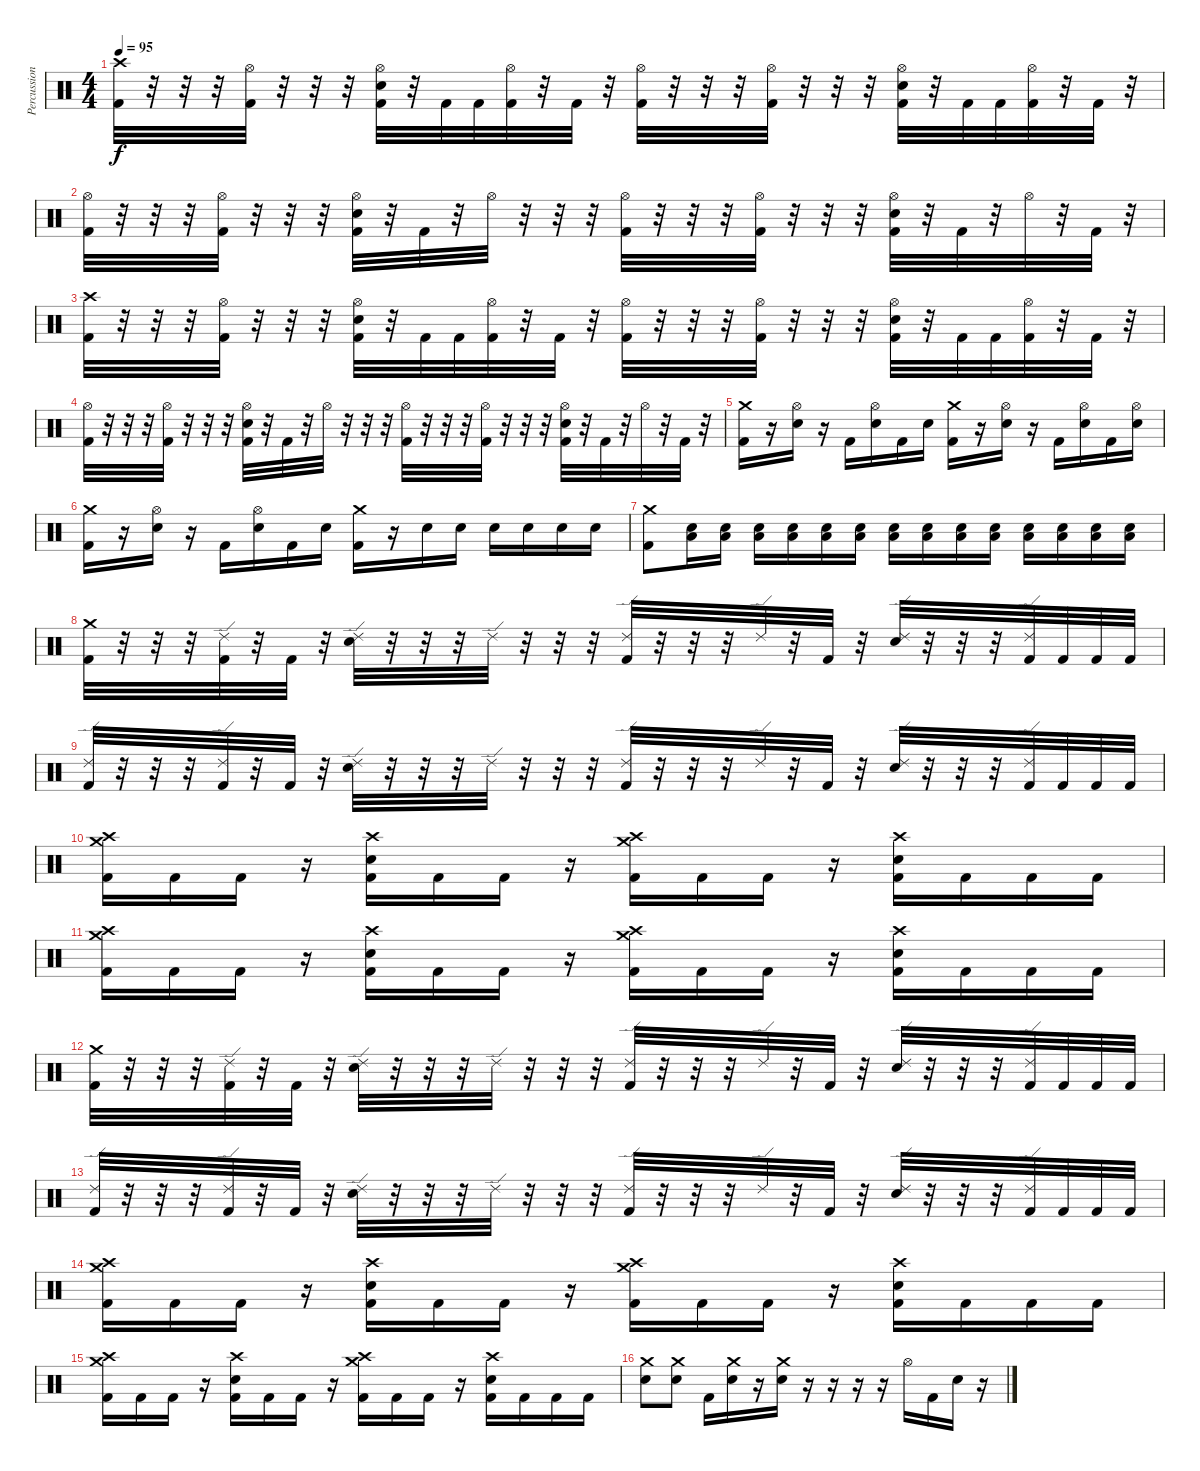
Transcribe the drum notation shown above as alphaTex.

\track ("Percussion" "Percussion") {instrument percussion}
\staff {score}
\articulation defaults
\ts (4 4)
\tempo 95
\clef neutral
\ks c
("Crash high (hit)" "Kick (hit) 2").32{dy f} r.32 r.32 r.32 ("Hi-Hat (open)" "Kick (hit) 2").32 r.32 r.32 r.32 ("Hi-Hat (open)" "Electric Snare (hit)" "Kick (hit) 2").32 r.32 "Kick (hit) 2".32 "Kick (hit) 2".32 ("Hi-Hat (open)" "Kick (hit) 2").32 r.32 "Kick (hit) 2".32 r.32 ("Hi-Hat (open)" "Kick (hit) 2").32 r.32 r.32 r.32 ("Hi-Hat (open)" "Kick (hit) 2").32 r.32 r.32 r.32 ("Hi-Hat (open)" "Electric Snare (hit)" "Kick (hit) 2").32 r.32 "Kick (hit) 2".32 "Kick (hit) 2".32 ("Hi-Hat (open)" "Kick (hit) 2").32 r.32 "Kick (hit) 2".32 r.32 |
("Hi-Hat (open)" "Kick (hit) 2").32 r.32 r.32 r.32 ("Hi-Hat (open)" "Kick (hit) 2").32 r.32 r.32 r.32 ("Hi-Hat (open)" "Electric Snare (hit)" "Kick (hit) 2").32 r.32 "Kick (hit) 2".32 r.32 "Hi-Hat (open)".32 r.32 r.32 r.32 ("Hi-Hat (open)" "Kick (hit) 2").32 r.32 r.32 r.32 ("Hi-Hat (open)" "Kick (hit) 2").32 r.32 r.32 r.32 ("Hi-Hat (open)" "Electric Snare (hit)" "Kick (hit) 2").32 r.32 "Kick (hit) 2".32 r.32 "Hi-Hat (open)".32 r.32 "Kick (hit) 2".32 r.32 |
("Crash high (hit)" "Kick (hit) 2").32 r.32 r.32 r.32 ("Hi-Hat (open)" "Kick (hit) 2").32 r.32 r.32 r.32 ("Hi-Hat (open)" "Electric Snare (hit)" "Kick (hit) 2").32 r.32 "Kick (hit) 2".32 "Kick (hit) 2".32 ("Hi-Hat (open)" "Kick (hit) 2").32 r.32 "Kick (hit) 2".32 r.32 ("Hi-Hat (open)" "Kick (hit) 2").32 r.32 r.32 r.32 ("Hi-Hat (open)" "Kick (hit) 2").32 r.32 r.32 r.32 ("Hi-Hat (open)" "Electric Snare (hit)" "Kick (hit) 2").32 r.32 "Kick (hit) 2".32 "Kick (hit) 2".32 ("Hi-Hat (open)" "Kick (hit) 2").32 r.32 "Kick (hit) 2".32 r.32 |
("Hi-Hat (open)" "Kick (hit) 2").32 r.32 r.32 r.32 ("Hi-Hat (open)" "Kick (hit) 2").32 r.32 r.32 r.32 ("Hi-Hat (open)" "Electric Snare (hit)" "Kick (hit) 2").32 r.32 "Kick (hit) 2".32 r.32 "Hi-Hat (open)".32 r.32 r.32 r.32 ("Hi-Hat (open)" "Kick (hit) 2").32 r.32 r.32 r.32 ("Hi-Hat (open)" "Kick (hit) 2").32 r.32 r.32 r.32 ("Hi-Hat (open)" "Electric Snare (hit)" "Kick (hit) 2").32 r.32 "Kick (hit) 2".32 r.32 "Hi-Hat (open)".32 r.32 "Kick (hit) 2".32 r.32 |
("Crash medium (hit)" "Kick (hit) 2").16 r.16 ("Hi-Hat (open)" "Electric Snare (hit)").16 r.16 "Kick (hit) 2".16 ("Hi-Hat (open)" "Electric Snare (hit)").16 "Kick (hit) 2".16 "Electric Snare (hit)".16 ("Crash medium (hit)" "Kick (hit) 2").16 r.16 ("Hi-Hat (open)" "Electric Snare (hit)").16 r.16 "Kick (hit) 2".16 ("Hi-Hat (open)" "Electric Snare (hit)").16 "Kick (hit) 2".16 ("Hi-Hat (open)" "Electric Snare (hit)").16 |
("Crash medium (hit)" "Kick (hit) 2").16 r.16 ("Hi-Hat (open)" "Electric Snare (hit)").16 r.16 "Kick (hit) 2".16 ("Hi-Hat (open)" "Electric Snare (hit)").16 "Kick (hit) 2".16 "Electric Snare (hit)".16 ("Crash medium (hit)" "Kick (hit) 2").16 r.16 "Electric Snare (hit)".16 "Electric Snare (hit)".16 "Electric Snare (hit)".16 "Electric Snare (hit)".16 "Electric Snare (hit)".16 "Electric Snare (hit)".16 |
("Crash medium (hit)" "Kick (hit) 2").8 ("Low Floor Tom (hit)" "Electric Snare (hit)").16 ("Low Floor Tom (hit)" "Electric Snare (hit)").16 ("Low Floor Tom (hit)" "Electric Snare (hit)").16 ("Low Floor Tom (hit)" "Electric Snare (hit)").16 ("Low Floor Tom (hit)" "Electric Snare (hit)").16 ("Low Floor Tom (hit)" "Electric Snare (hit)").16 ("Low Floor Tom (hit)" "Electric Snare (hit)").16 ("Low Floor Tom (hit)" "Electric Snare (hit)").16 ("Low Floor Tom (hit)" "Electric Snare (hit)").16 ("Low Floor Tom (hit)" "Electric Snare (hit)").16 ("Low Floor Tom (hit)" "Electric Snare (hit)").16 ("Low Floor Tom (hit)" "Electric Snare (hit)").16 ("Low Floor Tom (hit)" "Electric Snare (hit)").16 ("Low Floor Tom (hit)" "Electric Snare (hit)").16 |
("Crash medium (hit)" "Kick (hit) 2").32 r.32 r.32 r.32 ("Ride (edge) 2" "Kick (hit) 2").32 r.32 "Kick (hit) 2".32 r.32 ("Ride (edge) 2" "Electric Snare (hit)").32 r.32 r.32 r.32 "Ride (edge) 2".32 r.32 r.32 r.32 ("Ride (edge) 2" "Kick (hit) 2").32 r.32 r.32 r.32 "Ride (edge) 2".32 r.32 "Kick (hit) 2".32 r.32 ("Ride (edge) 2" "Electric Snare (hit)").32 r.32 r.32 r.32 ("Ride (edge) 2" "Kick (hit) 2").32 "Kick (hit) 2".32 "Kick (hit) 2".32 "Kick (hit) 2".32 |
("Ride (edge) 2" "Kick (hit) 2").32 r.32 r.32 r.32 ("Ride (edge) 2" "Kick (hit) 2").32 r.32 "Kick (hit) 2".32 r.32 ("Ride (edge) 2" "Electric Snare (hit)").32 r.32 r.32 r.32 "Ride (edge) 2".32 r.32 r.32 r.32 ("Ride (edge) 2" "Kick (hit) 2").32 r.32 r.32 r.32 "Ride (edge) 2".32 r.32 "Kick (hit) 2".32 r.32 ("Ride (edge) 2" "Electric Snare (hit)").32 r.32 r.32 r.32 ("Ride (edge) 2" "Kick (hit) 2").32 "Kick (hit) 2".32 "Kick (hit) 2".32 "Kick (hit) 2".32 |
("Crash medium (hit)" "Crash high (hit)" "Kick (hit) 2").16 "Kick (hit) 2".16 "Kick (hit) 2".16 r.16 ("Crash high (hit)" "Electric Snare (hit)" "Kick (hit) 2").16 "Kick (hit) 2".16 "Kick (hit) 2".16 r.16 ("Crash medium (hit)" "Crash high (hit)" "Kick (hit) 2").16 "Kick (hit) 2".16 "Kick (hit) 2".16 r.16 ("Crash high (hit)" "Electric Snare (hit)" "Kick (hit) 2").16 "Kick (hit) 2".16 "Kick (hit) 2".16 "Kick (hit) 2".16 |
("Crash medium (hit)" "Crash high (hit)" "Kick (hit) 2").16 "Kick (hit) 2".16 "Kick (hit) 2".16 r.16 ("Crash high (hit)" "Electric Snare (hit)" "Kick (hit) 2").16 "Kick (hit) 2".16 "Kick (hit) 2".16 r.16 ("Crash medium (hit)" "Crash high (hit)" "Kick (hit) 2").16 "Kick (hit) 2".16 "Kick (hit) 2".16 r.16 ("Crash high (hit)" "Electric Snare (hit)" "Kick (hit) 2").16 "Kick (hit) 2".16 "Kick (hit) 2".16 "Kick (hit) 2".16 |
("Crash medium (hit)" "Kick (hit) 2").32 r.32 r.32 r.32 ("Ride (edge) 2" "Kick (hit) 2").32 r.32 "Kick (hit) 2".32 r.32 ("Ride (edge) 2" "Electric Snare (hit)").32 r.32 r.32 r.32 "Ride (edge) 2".32 r.32 r.32 r.32 ("Ride (edge) 2" "Kick (hit) 2").32 r.32 r.32 r.32 "Ride (edge) 2".32 r.32 "Kick (hit) 2".32 r.32 ("Ride (edge) 2" "Electric Snare (hit)").32 r.32 r.32 r.32 ("Ride (edge) 2" "Kick (hit) 2").32 "Kick (hit) 2".32 "Kick (hit) 2".32 "Kick (hit) 2".32 |
("Ride (edge) 2" "Kick (hit) 2").32 r.32 r.32 r.32 ("Ride (edge) 2" "Kick (hit) 2").32 r.32 "Kick (hit) 2".32 r.32 ("Ride (edge) 2" "Electric Snare (hit)").32 r.32 r.32 r.32 "Ride (edge) 2".32 r.32 r.32 r.32 ("Ride (edge) 2" "Kick (hit) 2").32 r.32 r.32 r.32 "Ride (edge) 2".32 r.32 "Kick (hit) 2".32 r.32 ("Ride (edge) 2" "Electric Snare (hit)").32 r.32 r.32 r.32 ("Ride (edge) 2" "Kick (hit) 2").32 "Kick (hit) 2".32 "Kick (hit) 2".32 "Kick (hit) 2".32 |
("Crash medium (hit)" "Crash high (hit)" "Kick (hit) 2").16 "Kick (hit) 2".16 "Kick (hit) 2".16 r.16 ("Crash high (hit)" "Electric Snare (hit)" "Kick (hit) 2").16 "Kick (hit) 2".16 "Kick (hit) 2".16 r.16 ("Crash medium (hit)" "Crash high (hit)" "Kick (hit) 2").16 "Kick (hit) 2".16 "Kick (hit) 2".16 r.16 ("Crash high (hit)" "Electric Snare (hit)" "Kick (hit) 2").16 "Kick (hit) 2".16 "Kick (hit) 2".16 "Kick (hit) 2".16 |
("Crash medium (hit)" "Crash high (hit)" "Kick (hit) 2").16 "Kick (hit) 2".16 "Kick (hit) 2".16 r.16 ("Crash high (hit)" "Electric Snare (hit)" "Kick (hit) 2").16 "Kick (hit) 2".16 "Kick (hit) 2".16 r.16 ("Crash medium (hit)" "Crash high (hit)" "Kick (hit) 2").16 "Kick (hit) 2".16 "Kick (hit) 2".16 r.16 ("Crash high (hit)" "Electric Snare (hit)" "Kick (hit) 2").16 "Kick (hit) 2".16 "Kick (hit) 2".16 "Kick (hit) 2".16 |
("Crash medium (hit)" "Electric Snare (hit)").8 ("Crash medium (hit)" "Electric Snare (hit)").8 "Kick (hit) 2".16 ("Crash medium (hit)" "Electric Snare (hit)").16 r.16 ("Crash medium (hit)" "Electric Snare (hit)").16 r.16 r.16 r.16 r.16 "Hi-Hat (open)".16 "Kick (hit) 2".16 "Electric Snare (hit)".16 r.16
